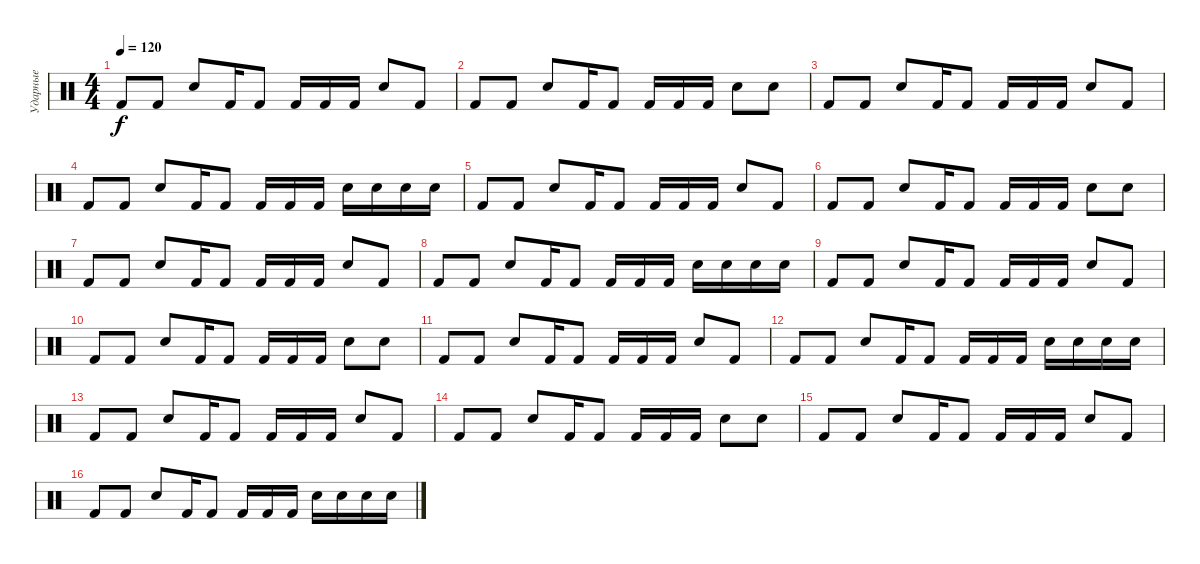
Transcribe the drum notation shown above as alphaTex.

\track ("Ударные" "Ударные") {instrument percussion}
\staff {score}
\articulation defaults
\ts (4 4)
\tempo 120
\clef neutral
\ks c "Kick (hit) 2".8{dy f} "Kick (hit) 2".8 "Electric Snare (hit)".8 "Kick (hit) 2".16 "Kick (hit) 2".8 "Kick (hit) 2".16 "Kick (hit) 2".16 "Kick (hit) 2".16 "Electric Snare (hit)".8 "Kick (hit) 2".8
|
"Kick (hit) 2".8 "Kick (hit) 2".8 "Electric Snare (hit)".8 "Kick (hit) 2".16 "Kick (hit) 2".8 "Kick (hit) 2".16 "Kick (hit) 2".16 "Kick (hit) 2".16 "Electric Snare (hit)".8 "Electric Snare (hit)".8 |
"Kick (hit) 2".8 "Kick (hit) 2".8 "Electric Snare (hit)".8 "Kick (hit) 2".16 "Kick (hit) 2".8 "Kick (hit) 2".16 "Kick (hit) 2".16 "Kick (hit) 2".16 "Electric Snare (hit)".8 "Kick (hit) 2".8 |
"Kick (hit) 2".8 "Kick (hit) 2".8 "Electric Snare (hit)".8 "Kick (hit) 2".16 "Kick (hit) 2".8 "Kick (hit) 2".16 "Kick (hit) 2".16 "Kick (hit) 2".16 "Electric Snare (hit)".16 "Electric Snare (hit)".16 "Electric Snare (hit)".16 "Electric Snare (hit)".16 |
"Kick (hit) 2".8 "Kick (hit) 2".8 "Electric Snare (hit)".8 "Kick (hit) 2".16 "Kick (hit) 2".8 "Kick (hit) 2".16 "Kick (hit) 2".16 "Kick (hit) 2".16 "Electric Snare (hit)".8 "Kick (hit) 2".8 |
"Kick (hit) 2".8 "Kick (hit) 2".8 "Electric Snare (hit)".8 "Kick (hit) 2".16 "Kick (hit) 2".8 "Kick (hit) 2".16 "Kick (hit) 2".16 "Kick (hit) 2".16 "Electric Snare (hit)".8 "Electric Snare (hit)".8 |
"Kick (hit) 2".8 "Kick (hit) 2".8 "Electric Snare (hit)".8 "Kick (hit) 2".16 "Kick (hit) 2".8 "Kick (hit) 2".16 "Kick (hit) 2".16 "Kick (hit) 2".16 "Electric Snare (hit)".8 "Kick (hit) 2".8 |
"Kick (hit) 2".8 "Kick (hit) 2".8 "Electric Snare (hit)".8 "Kick (hit) 2".16 "Kick (hit) 2".8 "Kick (hit) 2".16 "Kick (hit) 2".16 "Kick (hit) 2".16 "Electric Snare (hit)".16 "Electric Snare (hit)".16 "Electric Snare (hit)".16 "Electric Snare (hit)".16 |
"Kick (hit) 2".8 "Kick (hit) 2".8 "Electric Snare (hit)".8 "Kick (hit) 2".16 "Kick (hit) 2".8 "Kick (hit) 2".16 "Kick (hit) 2".16 "Kick (hit) 2".16 "Electric Snare (hit)".8 "Kick (hit) 2".8 |
"Kick (hit) 2".8 "Kick (hit) 2".8 "Electric Snare (hit)".8 "Kick (hit) 2".16 "Kick (hit) 2".8 "Kick (hit) 2".16 "Kick (hit) 2".16 "Kick (hit) 2".16 "Electric Snare (hit)".8 "Electric Snare (hit)".8 |
"Kick (hit) 2".8 "Kick (hit) 2".8 "Electric Snare (hit)".8 "Kick (hit) 2".16 "Kick (hit) 2".8 "Kick (hit) 2".16 "Kick (hit) 2".16 "Kick (hit) 2".16 "Electric Snare (hit)".8 "Kick (hit) 2".8 |
"Kick (hit) 2".8 "Kick (hit) 2".8 "Electric Snare (hit)".8 "Kick (hit) 2".16 "Kick (hit) 2".8 "Kick (hit) 2".16 "Kick (hit) 2".16 "Kick (hit) 2".16 "Electric Snare (hit)".16 "Electric Snare (hit)".16 "Electric Snare (hit)".16 "Electric Snare (hit)".16 |
"Kick (hit) 2".8 "Kick (hit) 2".8 "Electric Snare (hit)".8 "Kick (hit) 2".16 "Kick (hit) 2".8 "Kick (hit) 2".16 "Kick (hit) 2".16 "Kick (hit) 2".16 "Electric Snare (hit)".8 "Kick (hit) 2".8 |
"Kick (hit) 2".8 "Kick (hit) 2".8 "Electric Snare (hit)".8 "Kick (hit) 2".16 "Kick (hit) 2".8 "Kick (hit) 2".16 "Kick (hit) 2".16 "Kick (hit) 2".16 "Electric Snare (hit)".8 "Electric Snare (hit)".8 |
"Kick (hit) 2".8 "Kick (hit) 2".8 "Electric Snare (hit)".8 "Kick (hit) 2".16 "Kick (hit) 2".8 "Kick (hit) 2".16 "Kick (hit) 2".16 "Kick (hit) 2".16 "Electric Snare (hit)".8 "Kick (hit) 2".8 |
"Kick (hit) 2".8 "Kick (hit) 2".8 "Electric Snare (hit)".8 "Kick (hit) 2".16 "Kick (hit) 2".8 "Kick (hit) 2".16 "Kick (hit) 2".16 "Kick (hit) 2".16 "Electric Snare (hit)".16 "Electric Snare (hit)".16 "Electric Snare (hit)".16 "Electric Snare (hit)".16
